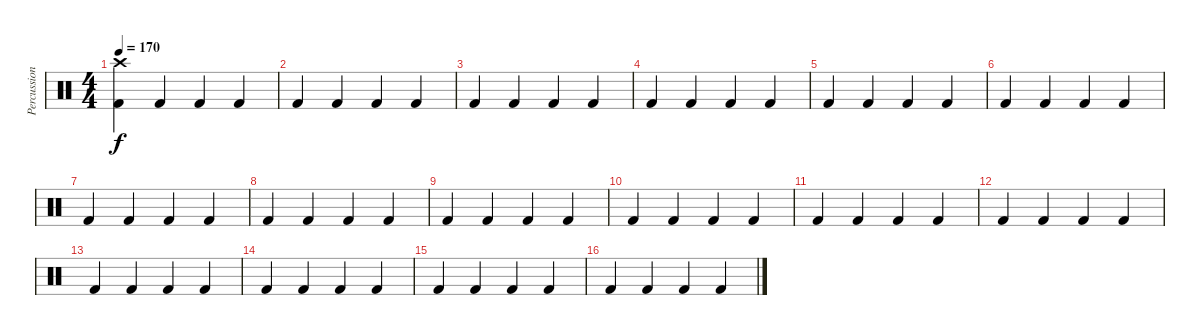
\track ("Percussioni" "Percussion") {instrument percussion}
\staff {score}
\articulation defaults
\ts (4 4)
\tempo 170
\clef neutral
\ks c
("Crash high (hit)" "Kick (hit) 2").4{dy f} "Kick (hit) 2".4 "Kick (hit) 2".4 "Kick (hit) 2".4 |
"Kick (hit) 2".4 "Kick (hit) 2".4 "Kick (hit) 2".4 "Kick (hit) 2".4 |
"Kick (hit) 2".4 "Kick (hit) 2".4 "Kick (hit) 2".4 "Kick (hit) 2".4 |
"Kick (hit) 2".4 "Kick (hit) 2".4 "Kick (hit) 2".4 "Kick (hit) 2".4 |
"Kick (hit) 2".4 "Kick (hit) 2".4 "Kick (hit) 2".4 "Kick (hit) 2".4 |
"Kick (hit) 2".4 "Kick (hit) 2".4 "Kick (hit) 2".4 "Kick (hit) 2".4 |
"Kick (hit) 2".4 "Kick (hit) 2".4 "Kick (hit) 2".4 "Kick (hit) 2".4 |
"Kick (hit) 2".4 "Kick (hit) 2".4 "Kick (hit) 2".4 "Kick (hit) 2".4 |
"Kick (hit) 2".4 "Kick (hit) 2".4 "Kick (hit) 2".4 "Kick (hit) 2".4 |
"Kick (hit) 2".4 "Kick (hit) 2".4 "Kick (hit) 2".4 "Kick (hit) 2".4 |
"Kick (hit) 2".4 "Kick (hit) 2".4 "Kick (hit) 2".4 "Kick (hit) 2".4 |
"Kick (hit) 2".4 "Kick (hit) 2".4 "Kick (hit) 2".4 "Kick (hit) 2".4 |
"Kick (hit) 2".4 "Kick (hit) 2".4 "Kick (hit) 2".4 "Kick (hit) 2".4 |
"Kick (hit) 2".4 "Kick (hit) 2".4 "Kick (hit) 2".4 "Kick (hit) 2".4 |
"Kick (hit) 2".4 "Kick (hit) 2".4 "Kick (hit) 2".4 "Kick (hit) 2".4 |
"Kick (hit) 2".4 "Kick (hit) 2".4 "Kick (hit) 2".4 "Kick (hit) 2".4
